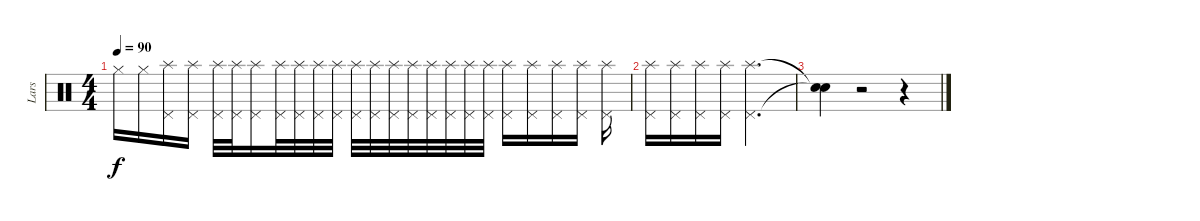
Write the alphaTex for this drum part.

\track ("Lars" "Lars") {instrument percussion}
\staff {score}
\articulation defaults
\ts (4 4)
\tempo 90
\clef neutral
\ks c "Hi-Hat (closed)".16{dy f} "Hi-Hat (closed)".16
("Splash (hit)" "Pedal Hi-Hat (hit)").16 ("Splash (hit)" "Pedal Hi-Hat (hit)").16 ("Splash (hit)" "Pedal Hi-Hat (hit)").32 ("Splash (hit)" "Pedal Hi-Hat (hit)").32 ("Splash (hit)" "Pedal Hi-Hat (hit)").16 ("Splash (hit)" "Pedal Hi-Hat (hit)").32 ("Splash (hit)" "Pedal Hi-Hat (hit)").32 ("Splash (hit)" "Pedal Hi-Hat (hit)").32 ("Splash (hit)" "Pedal Hi-Hat (hit)").32 ("Splash (hit)" "Pedal Hi-Hat (hit)").32 ("Splash (hit)" "Pedal Hi-Hat (hit)").32 ("Splash (hit)" "Pedal Hi-Hat (hit)").32 ("Splash (hit)" "Pedal Hi-Hat (hit)").32 ("Splash (hit)" "Pedal Hi-Hat (hit)").32 ("Splash (hit)" "Pedal Hi-Hat (hit)").32 ("Splash (hit)" "Pedal Hi-Hat (hit)").32 ("Splash (hit)" "Pedal Hi-Hat (hit)").32 ("Splash (hit)" "Pedal Hi-Hat (hit)").16 ("Splash (hit)" "Pedal Hi-Hat (hit)").16 ("Splash (hit)" "Pedal Hi-Hat (hit)").16 ("Splash (hit)" "Pedal Hi-Hat (hit)").16 ("Splash (hit)" "Pedal Hi-Hat (hit)").16 |
("Splash (hit)" "Pedal Hi-Hat (hit)").16 ("Splash (hit)" "Pedal Hi-Hat (hit)").16 ("Splash (hit)" "Pedal Hi-Hat (hit)").16 ("Splash (hit)" "Pedal Hi-Hat (hit)").16 ("Splash (hit)" "Pedal Hi-Hat (hit)").2{d} |
("Snare (hit)"{t} "Snare (hit)"{t}).4 r.2 r.4
